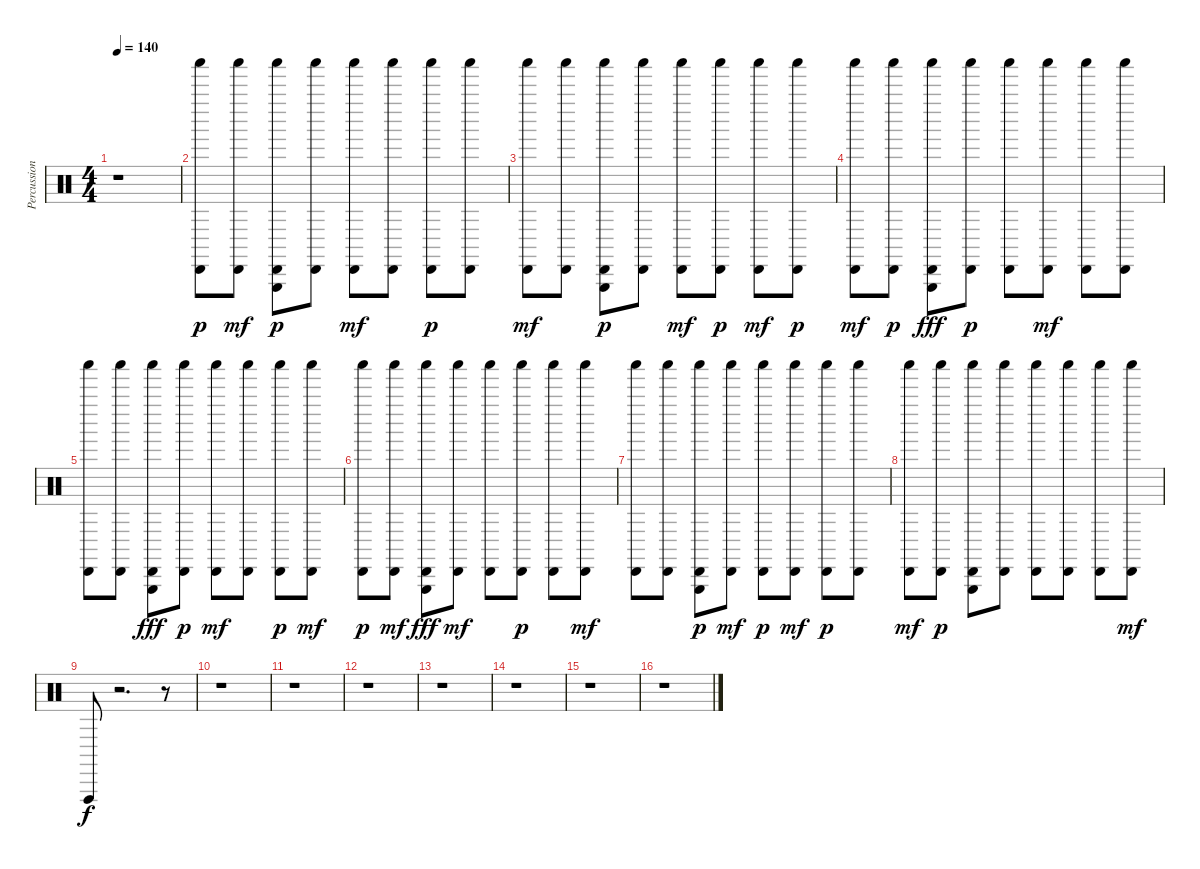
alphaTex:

\track ("Percussion Std Drums" "Percussion") {instrument percussion}
\staff {score}
\articulation defaults
\ts (4 4)
\tempo 140
\clef neutral
\ks c
r.1{dy p} |
("Cabasa (hit)" "Shaker (hit)").8 ("Shaker (hit)" "Cabasa (hit)").8{dy mf} ("Cabasa (hit)" "Triangle (hit)" "Shaker (hit)").8{dy p} ("Cabasa (hit)" "Shaker (hit)").8 ("Shaker (hit)" "Cabasa (hit)").8{dy mf} ("Shaker (hit)" "Cabasa (hit)").8 ("Cabasa (hit)" "Shaker (hit)").8{dy p} ("Cabasa (hit)" "Shaker (hit)").8 |
("Shaker (hit)" "Cabasa (hit)").8{dy mf} ("Shaker (hit)" "Cabasa (hit)").8 ("Triangle (hit)" "Cabasa (hit)" "Shaker (hit)").8{dy p} ("Cabasa (hit)" "Shaker (hit)").8 ("Shaker (hit)" "Cabasa (hit)").8{dy mf} ("Cabasa (hit)" "Shaker (hit)").8{dy p} ("Shaker (hit)" "Cabasa (hit)").8{dy mf} ("Cabasa (hit)" "Shaker (hit)").8{dy p} |
("Shaker (hit)" "Cabasa (hit)").8{dy mf} ("Cabasa (hit)" "Shaker (hit)").8{dy p} ("Shaker (hit)" "Cabasa (hit)" "Triangle (hit)").8{dy fff} ("Cabasa (hit)" "Shaker (hit)").8{dy p} ("Cabasa (hit)" "Shaker (hit)").8 ("Shaker (hit)" "Cabasa (hit)").8{dy mf} ("Shaker (hit)" "Cabasa (hit)").8 ("Shaker (hit)" "Cabasa (hit)").8 |
("Shaker (hit)" "Cabasa (hit)").8 ("Shaker (hit)" "Cabasa (hit)").8 ("Shaker (hit)" "Cabasa (hit)" "Triangle (hit)").8{dy fff} ("Cabasa (hit)" "Shaker (hit)").8{dy p} ("Shaker (hit)" "Cabasa (hit)").8{dy mf} ("Shaker (hit)" "Cabasa (hit)").8 ("Cabasa (hit)" "Shaker (hit)").8{dy p} ("Shaker (hit)" "Cabasa (hit)").8{dy mf} |
("Cabasa (hit)" "Shaker (hit)").8{dy p} ("Shaker (hit)" "Cabasa (hit)").8{dy mf} ("Shaker (hit)" "Cabasa (hit)" "Triangle (hit)").8{dy fff} ("Shaker (hit)" "Cabasa (hit)").8{dy mf} ("Shaker (hit)" "Cabasa (hit)").8 ("Cabasa (hit)" "Shaker (hit)").8{dy p} ("Cabasa (hit)" "Shaker (hit)").8 ("Shaker (hit)" "Cabasa (hit)").8{dy mf} |
("Shaker (hit)" "Cabasa (hit)").8 ("Shaker (hit)" "Cabasa (hit)").8 ("Cabasa (hit)" "Triangle (hit)" "Shaker (hit)").8{dy p} ("Shaker (hit)" "Cabasa (hit)").8{dy mf} ("Cabasa (hit)" "Shaker (hit)").8{dy p} ("Shaker (hit)" "Cabasa (hit)").8{dy mf} ("Cabasa (hit)" "Shaker (hit)").8{dy p} ("Cabasa (hit)" "Shaker (hit)").8 |
("Shaker (hit)" "Cabasa (hit)").8{dy mf} ("Cabasa (hit)" "Shaker (hit)").8{dy p} ("Triangle (hit)" "Cabasa (hit)" "Shaker (hit)").8 ("Cabasa (hit)" "Shaker (hit)").8 ("Cabasa (hit)" "Shaker (hit)").8 ("Cabasa (hit)" "Shaker (hit)").8 ("Cabasa (hit)" "Shaker (hit)").8 ("Shaker (hit)" "Cabasa (hit)").8{dy mf} |
"Vibraslap (hit)".8{dy f} r.2{d} r.8 |
r.1 |
r.1 |
r.1 |
r.1 |
r.1 |
r.1 |
r.1
